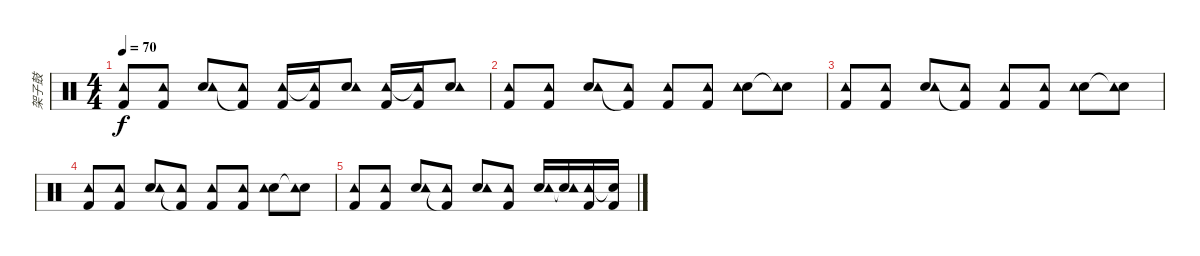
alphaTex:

\track ("架子鼓" "架子鼓") {instrument percussion}
\staff {score}
\articulation defaults
\ts (4 4)
\tempo 70
\clef neutral
\ks c
("Kick (hit) 2" "Tambourine (hit)").8{dy f} ("Kick (hit) 2" "Tambourine (hit)").8 ("Snare (hit) 2" "Tambourine (hit)").8 ("Kick (hit) 2"{t} "Tambourine (hit)").8 ("Kick (hit) 2" "Tambourine (hit)").16 ("Kick (hit) 2" "Tambourine (hit)"{t}).16 ("Snare (hit) 2" "Tambourine (hit)").8 ("Kick (hit) 2" "Tambourine (hit)").16 ("Kick (hit) 2" "Tambourine (hit)"{t}).16 ("Snare (hit) 2" "Tambourine (hit)").8 |
("Kick (hit) 2" "Tambourine (hit)").8 ("Kick (hit) 2" "Tambourine (hit)").8 ("Snare (hit) 2" "Tambourine (hit)").8 ("Kick (hit) 2"{t} "Tambourine (hit)").8 ("Kick (hit) 2" "Tambourine (hit)").8 ("Kick (hit) 2" "Tambourine (hit)").8 ("Snare (hit) 2" "Tambourine (hit)").8 ("Snare (hit) 2"{t} "Tambourine (hit)").8 |
("Kick (hit) 2" "Tambourine (hit)").8 ("Kick (hit) 2" "Tambourine (hit)").8 ("Snare (hit) 2" "Tambourine (hit)").8 ("Kick (hit) 2"{t} "Tambourine (hit)").8 ("Kick (hit) 2" "Tambourine (hit)").8 ("Kick (hit) 2" "Tambourine (hit)").8 ("Snare (hit) 2" "Tambourine (hit)").8 ("Snare (hit) 2"{t} "Tambourine (hit)").8 |
("Kick (hit) 2" "Tambourine (hit)").8 ("Kick (hit) 2" "Tambourine (hit)").8 ("Snare (hit) 2" "Tambourine (hit)").8 ("Kick (hit) 2"{t} "Tambourine (hit)").8 ("Kick (hit) 2" "Tambourine (hit)").8 ("Kick (hit) 2" "Tambourine (hit)").8 ("Snare (hit) 2" "Tambourine (hit)").8 ("Snare (hit) 2"{t} "Tambourine (hit)").8 |
("Kick (hit) 2" "Tambourine (hit)").8 ("Kick (hit) 2" "Tambourine (hit)").8 ("Snare (hit) 2" "Tambourine (hit)").8 ("Kick (hit) 2"{t} "Tambourine (hit)").8 ("Snare (hit) 2" "Tambourine (hit)").8 ("Kick (hit) 2" "Tambourine (hit)").8 ("Snare (hit) 2" "Tambourine (hit)").16 ("Snare (hit) 2" "Tambourine (hit)"{t}).16 ("Kick (hit) 2" "Tambourine (hit)").16 ("Kick (hit) 2" "Snare (hit)"{t}).16
